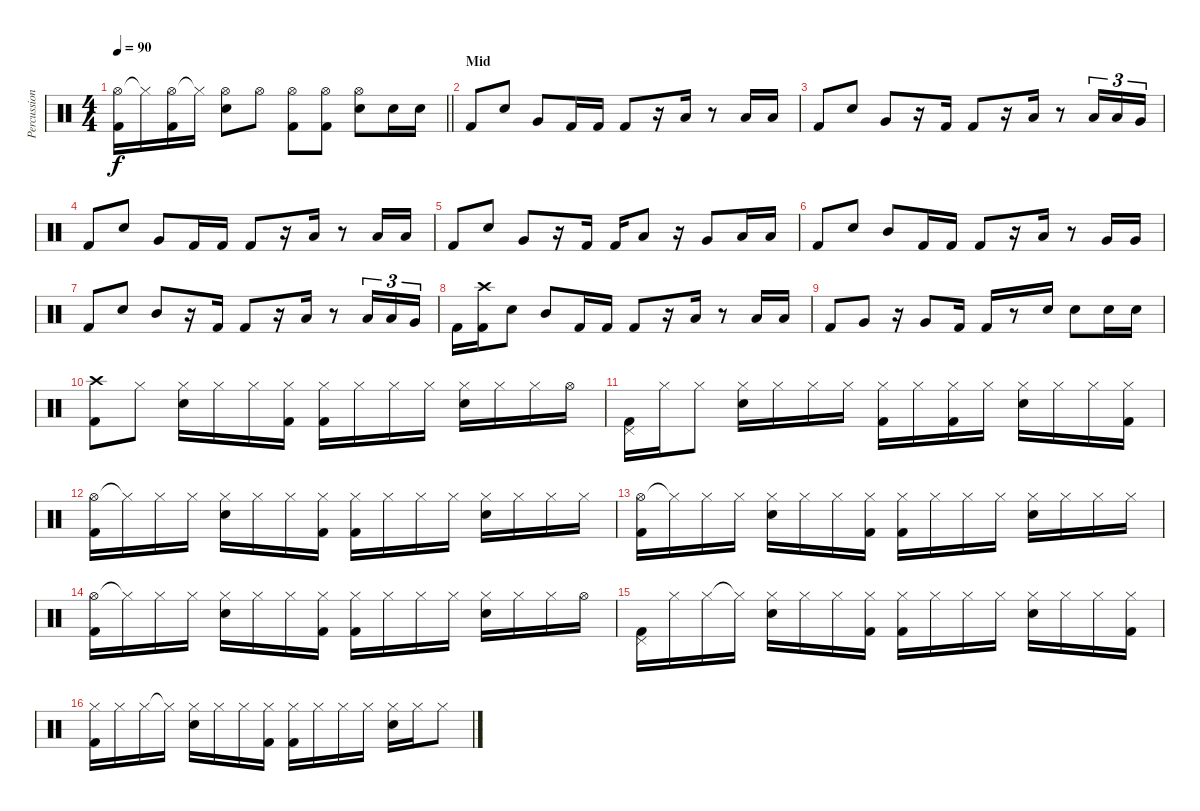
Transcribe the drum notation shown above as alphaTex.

\track ("Percussion" "Percussion") {instrument percussion}
\staff {score}
\articulation defaults
\ts (4 4)
\tempo 90
\clef neutral
\barLineRight lightlight
\ks c
("Hi-Hat (open)" "Kick (hit) 2").16{dy f} "Hi-Hat (closed)"{t}.16 ("Hi-Hat (open)" "Kick (hit) 2").16 "Hi-Hat (closed)"{t}.16 ("Hi-Hat (open)" "Electric Snare (hit)").8 "Hi-Hat (open)".8 ("Hi-Hat (open)" "Kick (hit) 2").8 ("Hi-Hat (open)" "Kick (hit) 2").8 ("Hi-Hat (open)" "Electric Snare (hit)").8 "Electric Snare (hit)".16 "Electric Snare (hit)".16 |
\section ("" "Mid")
"Kick (hit) 2".8 "Electric Snare (hit)".8 "Very Low Tom (hit)".8 "Kick (hit) 2".16 "Kick (hit) 2".16 "Kick (hit) 2".8 r.16 "Low Tom (hit)".16 r.8 "Low Tom (hit)".16 "Low Tom (hit)".16 |
"Kick (hit) 2".8 "Electric Snare (hit)".8 "Very Low Tom (hit)".8 r.16 "Kick (hit) 2".16 "Kick (hit) 2".8 r.16 "Low Tom (hit)".16 r.8 "Low Tom (hit)".16{tu (3 2)} "Low Tom (hit)".16{tu (3 2)} "Very Low Tom (hit)".16{tu (3 2)} |
"Kick (hit) 2".8 "Electric Snare (hit)".8 "Very Low Tom (hit)".8 "Kick (hit) 2".16 "Kick (hit) 2".16 "Kick (hit) 2".8 r.16 "Low Tom (hit)".16 r.8 "Low Tom (hit)".16 "Low Tom (hit)".16 |
"Kick (hit) 2".8 "Electric Snare (hit)".8 "Very Low Tom (hit)".8 r.16 "Kick (hit) 2".16 "Kick (hit) 2".16 "Low Tom (hit)".8 r.16 "Very Low Tom (hit)".8 "Low Tom (hit)".16 "Low Tom (hit)".16 |
"Kick (hit) 2".8 "Electric Snare (hit)".8 "Mid Tom (hit)".8 "Kick (hit) 2".16 "Kick (hit) 2".16 "Kick (hit) 2".8 r.16 "Low Tom (hit)".16 r.8 "Very Low Tom (hit)".16 "Very Low Tom (hit)".16 |
"Kick (hit) 2".8 "Electric Snare (hit)".8 "Mid Tom (hit)".8 r.16 "Kick (hit) 2".16 "Kick (hit) 2".8 r.16 "Low Tom (hit)".16 r.8 "Low Tom (hit)".16{tu (3 2)} "Low Tom (hit)".16{tu (3 2)} "Very Low Tom (hit)".16{tu (3 2)} |
"Kick (hit) 2".16 ("Crash high (hit)" "Kick (hit) 2").16 "Electric Snare (hit)".8 "Mid Tom (hit)".8 "Kick (hit) 2".16 "Kick (hit) 2".16 "Kick (hit) 2".8 r.16 "Low Tom (hit)".16 r.8 "Low Tom (hit)".16 "Low Tom (hit)".16 |
"Kick (hit) 2".8 "Very Low Tom (hit)".8 r.16 "Very Low Tom (hit)".8 "Kick (hit) 2".16 "Kick (hit) 2".16 r.8 "Electric Snare (hit)".16 "Electric Snare (hit)".8 "Electric Snare (hit)".16 "Electric Snare (hit)".16 |
("Crash high (hit)" "Kick (hit) 2").8 "Hi-Hat (closed)".8 ("Hi-Hat (closed)" "Electric Snare (hit)").16 "Hi-Hat (closed)".16 "Hi-Hat (closed)".16 ("Hi-Hat (closed)" "Kick (hit) 2").16 ("Hi-Hat (closed)" "Kick (hit) 2").16 "Hi-Hat (closed)".16 "Hi-Hat (closed)".16 "Hi-Hat (closed)".16 ("Hi-Hat (closed)" "Electric Snare (hit)").16 "Hi-Hat (closed)".16 "Hi-Hat (closed)".16 "Hi-Hat (open)".16 |
("Pedal Hi-Hat (hit)" "Kick (hit) 2").16 "Hi-Hat (closed)".16 "Hi-Hat (closed)".8 ("Hi-Hat (closed)" "Electric Snare (hit)").16 "Hi-Hat (closed)".16 "Hi-Hat (closed)".16 "Hi-Hat (closed)".16 ("Hi-Hat (closed)" "Kick (hit) 2").16 "Hi-Hat (closed)".16 ("Hi-Hat (closed)" "Kick (hit) 2").16 "Hi-Hat (closed)".16 ("Hi-Hat (closed)" "Electric Snare (hit)").16 "Hi-Hat (closed)".16 "Hi-Hat (closed)".16 ("Hi-Hat (closed)" "Kick (hit) 2").16 |
("Hi-Hat (open)" "Kick (hit) 2").16 "Hi-Hat (closed)"{t}.16 "Hi-Hat (closed)".16 "Hi-Hat (closed)".16 ("Hi-Hat (closed)" "Electric Snare (hit)").16 "Hi-Hat (closed)".16 "Hi-Hat (closed)".16 ("Hi-Hat (closed)" "Kick (hit) 2").16 ("Hi-Hat (closed)" "Kick (hit) 2").16 "Hi-Hat (closed)".16 "Hi-Hat (closed)".16 "Hi-Hat (closed)".16 ("Hi-Hat (closed)" "Electric Snare (hit)").16 "Hi-Hat (closed)".16 "Hi-Hat (closed)".16 "Hi-Hat (closed)".16 |
("Hi-Hat (open)" "Kick (hit) 2").16 "Hi-Hat (closed)"{t}.16 "Hi-Hat (closed)".16 "Hi-Hat (closed)".16 ("Hi-Hat (closed)" "Electric Snare (hit)").16 "Hi-Hat (closed)".16 "Hi-Hat (closed)".16 ("Hi-Hat (closed)" "Kick (hit) 2").16 ("Hi-Hat (closed)" "Kick (hit) 2").16 "Hi-Hat (closed)".16 "Hi-Hat (closed)".16 "Hi-Hat (closed)".16 ("Hi-Hat (closed)" "Electric Snare (hit)").16 "Hi-Hat (closed)".16 "Hi-Hat (closed)".16 "Hi-Hat (closed)".16 |
("Hi-Hat (open)" "Kick (hit) 2").16 "Hi-Hat (closed)"{t}.16 "Hi-Hat (closed)".16 "Hi-Hat (closed)".16 ("Hi-Hat (closed)" "Electric Snare (hit)").16 "Hi-Hat (closed)".16 "Hi-Hat (closed)".16 ("Hi-Hat (closed)" "Kick (hit) 2").16 ("Hi-Hat (closed)" "Kick (hit) 2").16 "Hi-Hat (closed)".16 "Hi-Hat (closed)".16 "Hi-Hat (closed)".16 ("Hi-Hat (closed)" "Electric Snare (hit)").16 "Hi-Hat (closed)".16 "Hi-Hat (closed)".16 "Hi-Hat (open)".16 |
("Pedal Hi-Hat (hit)" "Kick (hit) 2").16 "Hi-Hat (closed)".16 "Hi-Hat (closed)".16 "Hi-Hat (closed)"{t}.16 ("Hi-Hat (closed)" "Electric Snare (hit)").16 "Hi-Hat (closed)".16 "Hi-Hat (closed)".16 ("Hi-Hat (closed)" "Kick (hit) 2").16 ("Hi-Hat (closed)" "Kick (hit) 2").16 "Hi-Hat (closed)".16 "Hi-Hat (closed)".16 "Hi-Hat (closed)".16 ("Hi-Hat (closed)" "Electric Snare (hit)").16 "Hi-Hat (closed)".16 "Hi-Hat (closed)".16 ("Hi-Hat (closed)" "Kick (hit) 2").16 |
("Hi-Hat (closed)" "Kick (hit) 2").16 "Hi-Hat (closed)".16 "Hi-Hat (closed)".16 "Hi-Hat (closed)"{t}.16 ("Hi-Hat (closed)" "Electric Snare (hit)").16 "Hi-Hat (closed)".16 "Hi-Hat (closed)".16 ("Hi-Hat (closed)" "Kick (hit) 2").16 ("Hi-Hat (closed)" "Kick (hit) 2").16 "Hi-Hat (closed)".16 "Hi-Hat (closed)".16 "Hi-Hat (closed)".16 ("Hi-Hat (closed)" "Electric Snare (hit)").16 "Hi-Hat (closed)".16 "Hi-Hat (closed)".8
